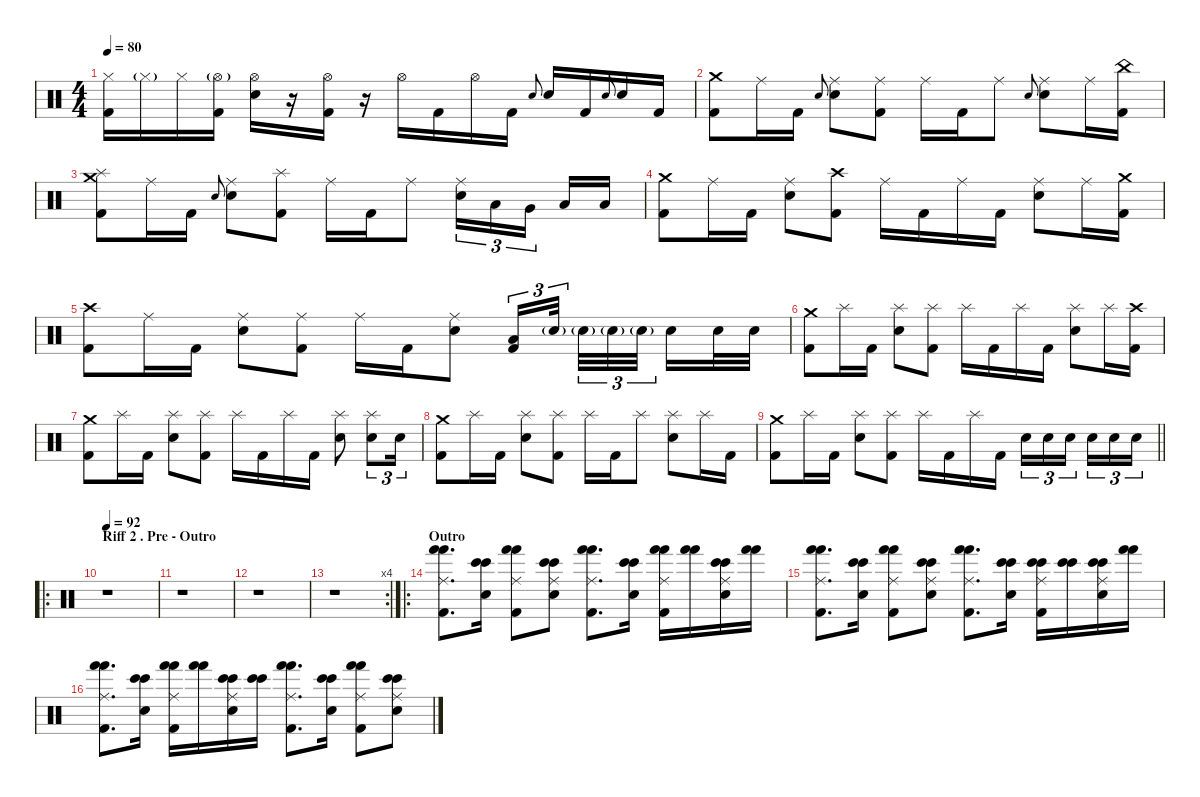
\defaultSystemsLayout 4
\hideDynamics
\bracketExtendMode nobrackets
\singleTrackTrackNamePolicy hidden
\multiTrackTrackNamePolicy hidden
\firstSystemTrackNameMode fullname
\firstSystemTrackNameOrientation horizontal
\otherSystemsTrackNameOrientation horizontal
\track ("Percussions" "drm.") {defaultSystemsLayout 4 instrument percussion}
\staff {score}
\articulation defaults
\ts (4 4)
\tempo 80
\clef neutral
\ks c
("Kick (hit) 2" "Hi-Hat (closed)").16{dy f beam Down} "Hi-Hat (closed)"{g}.16{dy ff beam Down} "Hi-Hat (closed)".16{dy f beam Down} ("Kick (hit) 2" "Hi-Hat (open)"{g}).16{beam Down} ("Snare (hit) 2" "Hi-Hat (open)").16{beam Down} r.16{beam Down} ("Kick (hit) 2" "Hi-Hat (open)").16{beam Down} r.16{beam Down} "Hi-Hat (open)".16{beam Down} "Kick (hit) 2".16{beam Down} "Hi-Hat (open)".16{dy fff beam Down} "Kick (hit) 2".16{beam Down} "Electric Snare (hit)".8{gr onbeat dy ff beam Up} "Snare (hit) 2".16{dy f beam Up} "Kick (hit) 2".16{dy fff beam Up} "Electric Snare (hit)".8{gr onbeat dy ff beam Up} "Snare (hit) 2".16{dy fff beam Up} "Kick (hit) 2".16{beam Up} |
("Crash medium (hit)" "Kick (hit) 2").8{beam Down} "Ride (middle)".16{beam Down} "Kick (hit) 2".16{beam Down} "Electric Snare (hit)".8{gr onbeat dy ff beam Up} ("Snare (hit) 2" "Ride (middle)").8{dy fff beam Down} ("Kick (hit) 2" "Ride (middle)").8{beam Down} "Ride (middle)".16{beam Down} "Kick (hit) 2".16{beam Down} "Ride (middle)".8{beam Down} "Electric Snare (hit)".8{gr onbeat dy ff beam Up} ("Snare (hit) 2" "Ride (middle)").8{dy fff beam Down} "Ride (middle)".16{beam Down} ("China (hit)" "Kick (hit) 2").16{beam Down} |
("Splash (hit)" "Crash medium (hit)" "Kick (hit) 2").8{beam Down} "Ride (middle)".16{beam Down} "Kick (hit) 2".16{beam Down} "Electric Snare (hit)".8{gr onbeat dy ff beam Up} ("Snare (hit) 2" "Ride (middle)").8{dy fff beam Down} ("Splash (hit)" "Kick (hit) 2").8{beam Down} "Ride (middle)".16{beam Down} "Kick (hit) 2".16{beam Down} "Ride (middle)".8{beam Down} ("Snare (hit) 2" "Ride (middle)").16{tu (3 2) beam Down} "Low Tom (hit)".16{tu (3 2) beam Down} "Very Low Tom (hit)".16{tu (3 2) beam Down} "Low Floor Tom (hit)".16{beam Up} "Low Floor Tom (hit)".16{beam Up} |
("Crash medium (hit)" "Kick (hit) 2").8{beam Down} "Ride (middle)".16{beam Down} "Kick (hit) 2".16{beam Down} ("Snare (hit) 2" "Ride (middle)").8{beam Down} ("Crash high (hit)" "Kick (hit) 2").8{beam Down} "Ride (middle)".16{beam Down} "Kick (hit) 2".16{beam Down} "Ride (middle)".16{beam Down} "Kick (hit) 2".16{beam Down} ("Snare (hit) 2" "Ride (middle)").8{beam Down} "Ride (middle)".16{beam Down} ("Crash medium (hit)" "Kick (hit) 2").16{beam Down} |
("Crash high (hit)" "Kick (hit) 2").8{beam Down} "Ride (middle)".16{beam Down} "Kick (hit) 2".16{beam Down} ("Snare (hit) 2" "Ride (middle)").8{beam Down} ("Kick (hit) 2" "Ride (middle)").8{beam Down} "Ride (middle)".16{beam Down} "Kick (hit) 2".16{beam Down} ("Snare (hit) 2" "Ride (middle)").8{beam Down} ("Low Tom (hit)" "Kick (hit) 2").16{tu (3 2) dy mf beam Up} "Snare (hit) 2"{g}.32{tu (3 2) dy mp beam Up} "Snare (hit) 2"{g}.32{tu (3 2) beam Down} "Snare (hit) 2"{g}.32{tu (3 2) beam Down} "Snare (hit) 2"{g}.32{tu (3 2) beam Down} "Snare (hit) 2".16{dy fff beam Down} "Snare (hit) 2".32{beam Down} "Snare (hit) 2".32{beam Down} |
("Crash medium (hit)" "Kick (hit) 2").8{beam Down} "Splash (hit)".16{beam Down} "Kick (hit) 2".16{beam Down} ("Splash (hit)" "Snare (hit) 2").8{beam Down} ("Splash (hit)" "Kick (hit) 2").8{beam Down} "Splash (hit)".16{beam Down} "Kick (hit) 2".16{beam Down} "Splash (hit)".16{beam Down} "Kick (hit) 2".16{beam Down} ("Splash (hit)" "Snare (hit) 2").8{beam Down} "Splash (hit)".16{beam Down} ("Crash high (hit)" "Kick (hit) 2").16{beam Down} |
("Crash medium (hit)" "Kick (hit) 2").8{beam Down} "Splash (hit)".16{beam Down} "Kick (hit) 2".16{beam Down} ("Splash (hit)" "Snare (hit) 2").8{beam Down} ("Splash (hit)" "Kick (hit) 2").8{beam Down} "Splash (hit)".16{beam Down} "Kick (hit) 2".16{beam Down} "Splash (hit)".16{beam Down} "Kick (hit) 2".16{beam Down} ("Splash (hit)" "Snare (hit) 2").8{beam Down} ("Splash (hit)" "Snare (hit) 2").8{tu (3 2) beam Down} "Snare (hit) 2".16{tu (3 2) beam Down} |
("Crash medium (hit)" "Kick (hit) 2").8{beam Down} "Splash (hit)".16{beam Down} "Kick (hit) 2".16{beam Down} ("Splash (hit)" "Snare (hit) 2").8{beam Down} ("Splash (hit)" "Kick (hit) 2").8{beam Down} "Splash (hit)".16{beam Down} "Kick (hit) 2".16{beam Down} "Splash (hit)".8{beam Down} ("Splash (hit)" "Snare (hit) 2").8{beam Down} "Splash (hit)".16{beam Down} "Kick (hit) 2".16{beam Down} |
\barLineRight lightlight
("Crash medium (hit)" "Kick (hit) 2").8{beam Down} "Splash (hit)".16{beam Down} "Kick (hit) 2".16{beam Down} ("Splash (hit)" "Snare (hit) 2").8{beam Down} ("Splash (hit)" "Kick (hit) 2").8{beam Down} "Splash (hit)".16{beam Down} "Kick (hit) 2".16{beam Down} "Splash (hit)".16{beam Down} "Kick (hit) 2".16{beam Down} "Snare (hit) 2".16{tu (3 2) beam Down} "Snare (hit) 2".16{tu (3 2) beam Down} "Snare (hit) 2".16{tu (3 2) beam Down} "Snare (hit) 2".16{tu (3 2) beam Down} "Snare (hit) 2".16{tu (3 2) beam Down} "Snare (hit) 2".16{tu (3 2) beam Down} |
\ro
\section ("" "Riff 2 . Pre - Outro")
\tempo 92
r.1{beam Down} |
r.1{beam Down} |
r.1{beam Down} |
\rc 4
r.1{beam Down} |
\ro
\section ("" "Outro")
("Hand (hit)" "Hand (hit)" "Kick (hit) 2" "Ride (middle)").8{d beam Down} ("Bongo High (hit)" "Bongo High (hit)" "Snare (hit) 2").16{beam Down} ("Hand (hit)" "Hand (hit)" "Kick (hit) 2" "Ride (middle)").8{beam Down} ("Bongo High (hit)" "Bongo High (hit)" "Snare (hit) 2" "Ride (middle)").8{beam Down} ("Hand (hit)" "Hand (hit)" "Kick (hit) 2" "Ride (middle)").8{d beam Down} ("Bongo High (hit)" "Bongo High (hit)" "Snare (hit) 2").16{beam Down} ("Hand (hit)" "Hand (hit)" "Kick (hit) 2" "Ride (middle)").16{beam Down} ("Hand (hit)" "Hand (hit)").16{beam Down} ("Bongo High (hit)" "Bongo High (hit)" "Snare (hit) 2" "Ride (middle)").16{beam Down} ("Hand (hit)" "Hand (hit)").16{beam Down} |
("Hand (hit)" "Hand (hit)" "Kick (hit) 2" "Ride (middle)").8{d beam Down} ("Bongo High (hit)" "Bongo High (hit)" "Snare (hit) 2").16{beam Down} ("Hand (hit)" "Hand (hit)" "Kick (hit) 2" "Ride (middle)").8{beam Down} ("Bongo High (hit)" "Bongo High (hit)" "Snare (hit) 2" "Ride (middle)").8{beam Down} ("Hand (hit)" "Hand (hit)" "Kick (hit) 2" "Ride (middle)").8{d beam Down} ("Bongo High (hit)" "Bongo High (hit)" "Snare (hit) 2").16{beam Down} ("Bongo High (hit)" "Bongo High (hit)" "Kick (hit) 2" "Ride (middle)").16{beam Down} ("Bongo High (hit)" "Bongo High (hit)").16{beam Down} ("Bongo High (hit)" "Bongo High (hit)" "Snare (hit) 2" "Ride (middle)").16{beam Down} ("Hand (hit)" "Hand (hit)").16{beam Down} |
("Hand (hit)" "Hand (hit)" "Kick (hit) 2" "Ride (middle)").8{d beam Down} ("Bongo High (hit)" "Bongo High (hit)" "Snare (hit) 2").16{beam Down} ("Hand (hit)" "Hand (hit)" "Kick (hit) 2" "Ride (middle)").16{beam Down} ("Hand (hit)" "Hand (hit)").16{beam Down} ("Bongo High (hit)" "Bongo High (hit)" "Snare (hit) 2" "Ride (middle)").16{beam Down} ("Bongo High (hit)" "Bongo High (hit)").16{beam Down} ("Hand (hit)" "Hand (hit)" "Kick (hit) 2" "Ride (middle)").8{d beam Down} ("Bongo High (hit)" "Bongo High (hit)" "Snare (hit) 2").16{beam Down} ("Hand (hit)" "Hand (hit)" "Kick (hit) 2" "Ride (middle)").8{beam Down} ("Bongo High (hit)" "Bongo High (hit)" "Snare (hit) 2" "Ride (middle)").8{beam Down}
